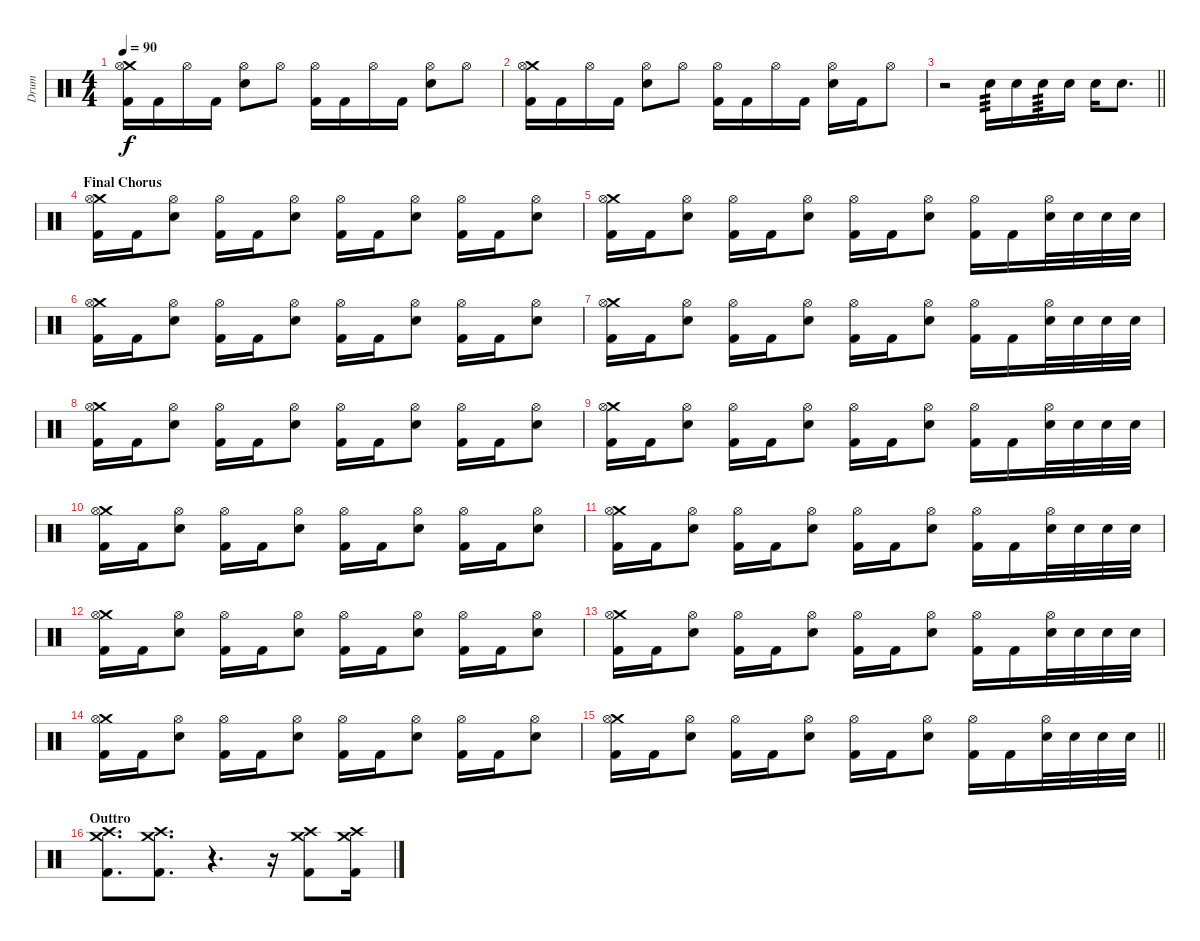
\track ("Drum" "Drum") {instrument percussion}
\staff {score}
\articulation defaults
\ts (4 4)
\tempo 90
\clef neutral
\ks c
("Crash medium (hit)" "Hi-Hat (open)" "Kick (hit) 2").16{dy f} "Kick (hit) 2".16 "Hi-Hat (open)".16 "Kick (hit) 2".16 ("Hi-Hat (open)" "Electric Snare (hit)").8 "Hi-Hat (open)".8 ("Hi-Hat (open)" "Kick (hit) 2").16 "Kick (hit) 2".16 "Hi-Hat (open)".16 "Kick (hit) 2".16 ("Hi-Hat (open)" "Electric Snare (hit)").8 "Hi-Hat (open)".8 |
("Crash medium (hit)" "Hi-Hat (open)" "Kick (hit) 2").16 "Kick (hit) 2".16 "Hi-Hat (open)".16 "Kick (hit) 2".16 ("Hi-Hat (open)" "Electric Snare (hit)").8 "Hi-Hat (open)".8 ("Hi-Hat (open)" "Kick (hit) 2").16 "Kick (hit) 2".16 "Hi-Hat (open)".16 "Kick (hit) 2".16 ("Hi-Hat (open)" "Electric Snare (hit)").16 "Kick (hit) 2".16 "Hi-Hat (open)".8 |
\barLineRight lightlight
r.2 "Electric Snare (hit)".16{tp 3} "Electric Snare (hit)".16 "Electric Snare (hit)".16{tp 3} "Electric Snare (hit)".16 "Electric Snare (hit)".16 "Electric Snare (hit)".8{d} |
\section ("" "Final Chorus")
("Crash medium (hit)" "Hi-Hat (open)" "Kick (hit) 2").16 "Kick (hit) 2".16 ("Hi-Hat (open)" "Electric Snare (hit)").8 ("Hi-Hat (open)" "Kick (hit) 2").16 "Kick (hit) 2".16 ("Hi-Hat (open)" "Electric Snare (hit)").8 ("Hi-Hat (open)" "Kick (hit) 2").16 "Kick (hit) 2".16 ("Hi-Hat (open)" "Electric Snare (hit)").8 ("Hi-Hat (open)" "Kick (hit) 2").16 "Kick (hit) 2".16 ("Hi-Hat (open)" "Electric Snare (hit)").8 |
("Crash medium (hit)" "Hi-Hat (open)" "Kick (hit) 2").16 "Kick (hit) 2".16 ("Hi-Hat (open)" "Electric Snare (hit)").8 ("Hi-Hat (open)" "Kick (hit) 2").16 "Kick (hit) 2".16 ("Hi-Hat (open)" "Electric Snare (hit)").8 ("Hi-Hat (open)" "Kick (hit) 2").16 "Kick (hit) 2".16 ("Hi-Hat (open)" "Electric Snare (hit)").8 ("Hi-Hat (open)" "Kick (hit) 2").16 "Kick (hit) 2".16 ("Hi-Hat (open)" "Electric Snare (hit)").32 "Electric Snare (hit)".32 "Electric Snare (hit)".32 "Electric Snare (hit)".32 |
("Crash medium (hit)" "Hi-Hat (open)" "Kick (hit) 2").16 "Kick (hit) 2".16 ("Hi-Hat (open)" "Electric Snare (hit)").8 ("Hi-Hat (open)" "Kick (hit) 2").16 "Kick (hit) 2".16 ("Hi-Hat (open)" "Electric Snare (hit)").8 ("Hi-Hat (open)" "Kick (hit) 2").16 "Kick (hit) 2".16 ("Hi-Hat (open)" "Electric Snare (hit)").8 ("Hi-Hat (open)" "Kick (hit) 2").16 "Kick (hit) 2".16 ("Hi-Hat (open)" "Electric Snare (hit)").8 |
("Crash medium (hit)" "Hi-Hat (open)" "Kick (hit) 2").16 "Kick (hit) 2".16 ("Hi-Hat (open)" "Electric Snare (hit)").8 ("Hi-Hat (open)" "Kick (hit) 2").16 "Kick (hit) 2".16 ("Hi-Hat (open)" "Electric Snare (hit)").8 ("Hi-Hat (open)" "Kick (hit) 2").16 "Kick (hit) 2".16 ("Hi-Hat (open)" "Electric Snare (hit)").8 ("Hi-Hat (open)" "Kick (hit) 2").16 "Kick (hit) 2".16 ("Hi-Hat (open)" "Electric Snare (hit)").32 "Electric Snare (hit)".32 "Electric Snare (hit)".32 "Electric Snare (hit)".32 |
("Crash medium (hit)" "Hi-Hat (open)" "Kick (hit) 2").16 "Kick (hit) 2".16 ("Hi-Hat (open)" "Electric Snare (hit)").8 ("Hi-Hat (open)" "Kick (hit) 2").16 "Kick (hit) 2".16 ("Hi-Hat (open)" "Electric Snare (hit)").8 ("Hi-Hat (open)" "Kick (hit) 2").16 "Kick (hit) 2".16 ("Hi-Hat (open)" "Electric Snare (hit)").8 ("Hi-Hat (open)" "Kick (hit) 2").16 "Kick (hit) 2".16 ("Hi-Hat (open)" "Electric Snare (hit)").8 |
("Crash medium (hit)" "Hi-Hat (open)" "Kick (hit) 2").16 "Kick (hit) 2".16 ("Hi-Hat (open)" "Electric Snare (hit)").8 ("Hi-Hat (open)" "Kick (hit) 2").16 "Kick (hit) 2".16 ("Hi-Hat (open)" "Electric Snare (hit)").8 ("Hi-Hat (open)" "Kick (hit) 2").16 "Kick (hit) 2".16 ("Hi-Hat (open)" "Electric Snare (hit)").8 ("Hi-Hat (open)" "Kick (hit) 2").16 "Kick (hit) 2".16 ("Hi-Hat (open)" "Electric Snare (hit)").32 "Electric Snare (hit)".32 "Electric Snare (hit)".32 "Electric Snare (hit)".32 |
("Crash medium (hit)" "Hi-Hat (open)" "Kick (hit) 2").16 "Kick (hit) 2".16 ("Hi-Hat (open)" "Electric Snare (hit)").8 ("Hi-Hat (open)" "Kick (hit) 2").16 "Kick (hit) 2".16 ("Hi-Hat (open)" "Electric Snare (hit)").8 ("Hi-Hat (open)" "Kick (hit) 2").16 "Kick (hit) 2".16 ("Hi-Hat (open)" "Electric Snare (hit)").8 ("Hi-Hat (open)" "Kick (hit) 2").16 "Kick (hit) 2".16 ("Hi-Hat (open)" "Electric Snare (hit)").8 |
("Crash medium (hit)" "Hi-Hat (open)" "Kick (hit) 2").16 "Kick (hit) 2".16 ("Hi-Hat (open)" "Electric Snare (hit)").8 ("Hi-Hat (open)" "Kick (hit) 2").16 "Kick (hit) 2".16 ("Hi-Hat (open)" "Electric Snare (hit)").8 ("Hi-Hat (open)" "Kick (hit) 2").16 "Kick (hit) 2".16 ("Hi-Hat (open)" "Electric Snare (hit)").8 ("Hi-Hat (open)" "Kick (hit) 2").16 "Kick (hit) 2".16 ("Hi-Hat (open)" "Electric Snare (hit)").32 "Electric Snare (hit)".32 "Electric Snare (hit)".32 "Electric Snare (hit)".32 |
("Crash medium (hit)" "Hi-Hat (open)" "Kick (hit) 2").16 "Kick (hit) 2".16 ("Hi-Hat (open)" "Electric Snare (hit)").8 ("Hi-Hat (open)" "Kick (hit) 2").16 "Kick (hit) 2".16 ("Hi-Hat (open)" "Electric Snare (hit)").8 ("Hi-Hat (open)" "Kick (hit) 2").16 "Kick (hit) 2".16 ("Hi-Hat (open)" "Electric Snare (hit)").8 ("Hi-Hat (open)" "Kick (hit) 2").16 "Kick (hit) 2".16 ("Hi-Hat (open)" "Electric Snare (hit)").8 |
("Crash medium (hit)" "Hi-Hat (open)" "Kick (hit) 2").16 "Kick (hit) 2".16 ("Hi-Hat (open)" "Electric Snare (hit)").8 ("Hi-Hat (open)" "Kick (hit) 2").16 "Kick (hit) 2".16 ("Hi-Hat (open)" "Electric Snare (hit)").8 ("Hi-Hat (open)" "Kick (hit) 2").16 "Kick (hit) 2".16 ("Hi-Hat (open)" "Electric Snare (hit)").8 ("Hi-Hat (open)" "Kick (hit) 2").16 "Kick (hit) 2".16 ("Hi-Hat (open)" "Electric Snare (hit)").32 "Electric Snare (hit)".32 "Electric Snare (hit)".32 "Electric Snare (hit)".32 |
("Crash medium (hit)" "Hi-Hat (open)" "Kick (hit) 2").16 "Kick (hit) 2".16 ("Hi-Hat (open)" "Electric Snare (hit)").8 ("Hi-Hat (open)" "Kick (hit) 2").16 "Kick (hit) 2".16 ("Hi-Hat (open)" "Electric Snare (hit)").8 ("Hi-Hat (open)" "Kick (hit) 2").16 "Kick (hit) 2".16 ("Hi-Hat (open)" "Electric Snare (hit)").8 ("Hi-Hat (open)" "Kick (hit) 2").16 "Kick (hit) 2".16 ("Hi-Hat (open)" "Electric Snare (hit)").8 |
\barLineRight lightlight
("Crash medium (hit)" "Hi-Hat (open)" "Kick (hit) 2").16 "Kick (hit) 2".16 ("Hi-Hat (open)" "Electric Snare (hit)").8 ("Hi-Hat (open)" "Kick (hit) 2").16 "Kick (hit) 2".16 ("Hi-Hat (open)" "Electric Snare (hit)").8 ("Hi-Hat (open)" "Kick (hit) 2").16 "Kick (hit) 2".16 ("Hi-Hat (open)" "Electric Snare (hit)").8 ("Hi-Hat (open)" "Kick (hit) 2").16 "Kick (hit) 2".16 ("Hi-Hat (open)" "Electric Snare (hit)").32 "Electric Snare (hit)".32 "Electric Snare (hit)".32 "Electric Snare (hit)".32 |
\section ("" "Outtro")
("Crash medium (hit)" "Crash high (hit)" "Kick (hit) 2").8{d} ("Crash medium (hit)" "Crash high (hit)" "Kick (hit) 2").8{d} r.4{d} r.16 ("Crash medium (hit)" "Crash high (hit)" "Kick (hit) 2").8 ("Crash medium (hit)" "Crash high (hit)" "Kick (hit) 2").16
